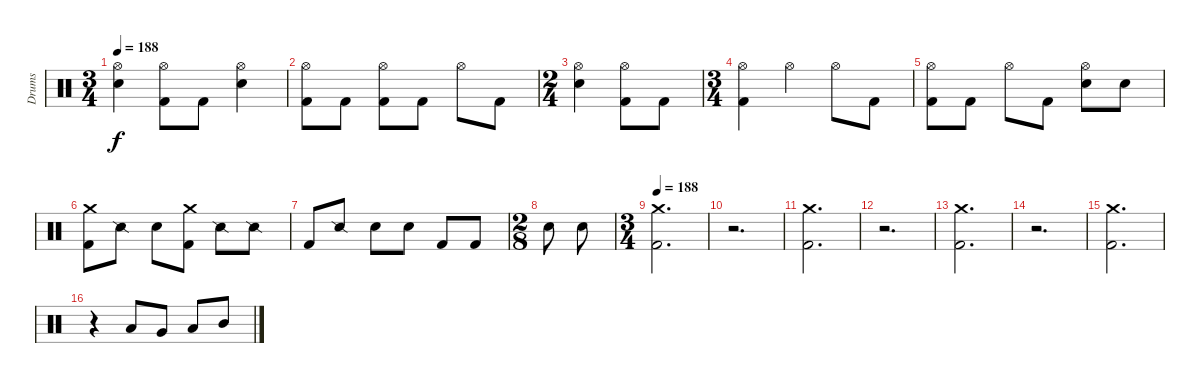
\track ("Drums" "Drums") {instrument percussion}
\staff {score}
\articulation defaults
\ts (3 4)
\tempo 188
\clef neutral
\ks c
("Electric Snare (hit)" "Hi-Hat (open)").4{dy f} ("Hi-Hat (open)" "Kick (hit) 2").8 "Kick (hit) 2".8 ("Electric Snare (hit)" "Hi-Hat (open)").4 |
("Hi-Hat (open)" "Kick (hit) 2").8 "Kick (hit) 2".8 ("Hi-Hat (open)" "Kick (hit) 2").8 "Kick (hit) 2".8 "Hi-Hat (open)".8 "Kick (hit) 2".8 |
\ts (2 4)
("Electric Snare (hit)" "Hi-Hat (open)").4 ("Hi-Hat (open)" "Kick (hit) 2").8 "Kick (hit) 2".8 |
\ts (3 4)
("Hi-Hat (open)" "Kick (hit) 2").4 "Hi-Hat (open)".4 "Hi-Hat (open)".8 "Kick (hit) 2".8 |
("Hi-Hat (open)" "Kick (hit) 2").8 "Kick (hit) 2".8 "Hi-Hat (open)".8 "Kick (hit) 2".8 ("Electric Snare (hit)" "Hi-Hat (open)").8 "Electric Snare (hit)".8 |
("Crash medium (hit)" "Kick (hit) 2").8 "Snare (side stick) 2".8 "Electric Snare (hit)".8 ("Crash medium (hit)" "Kick (hit) 2").8 "Snare (side stick) 2".8 "Snare (side stick) 2".8 |
"Kick (hit) 2".8 "Snare (side stick) 2".8 "Electric Snare (hit)".8 "Electric Snare (hit)".8 "Kick (hit) 2".8 "Kick (hit) 2".8 |
\ts (2 8)
"Electric Snare (hit)".8 "Electric Snare (hit)".8 |
\ts (3 4)
\tempo 188
("Crash medium (hit)" "Kick (hit) 2").2{d} |
r.2{d} |
("Crash medium (hit)" "Kick (hit) 2").2{d} |
r.2{d} |
("Crash medium (hit)" "Kick (hit) 2").2{d} |
r.2{d} |
("Crash medium (hit)" "Kick (hit) 2").2{d} |
r.4 "Low Floor Tom (hit)".8 "Very Low Tom (hit)".8 "Low Tom (hit)".8 "Mid Tom (hit)".8
